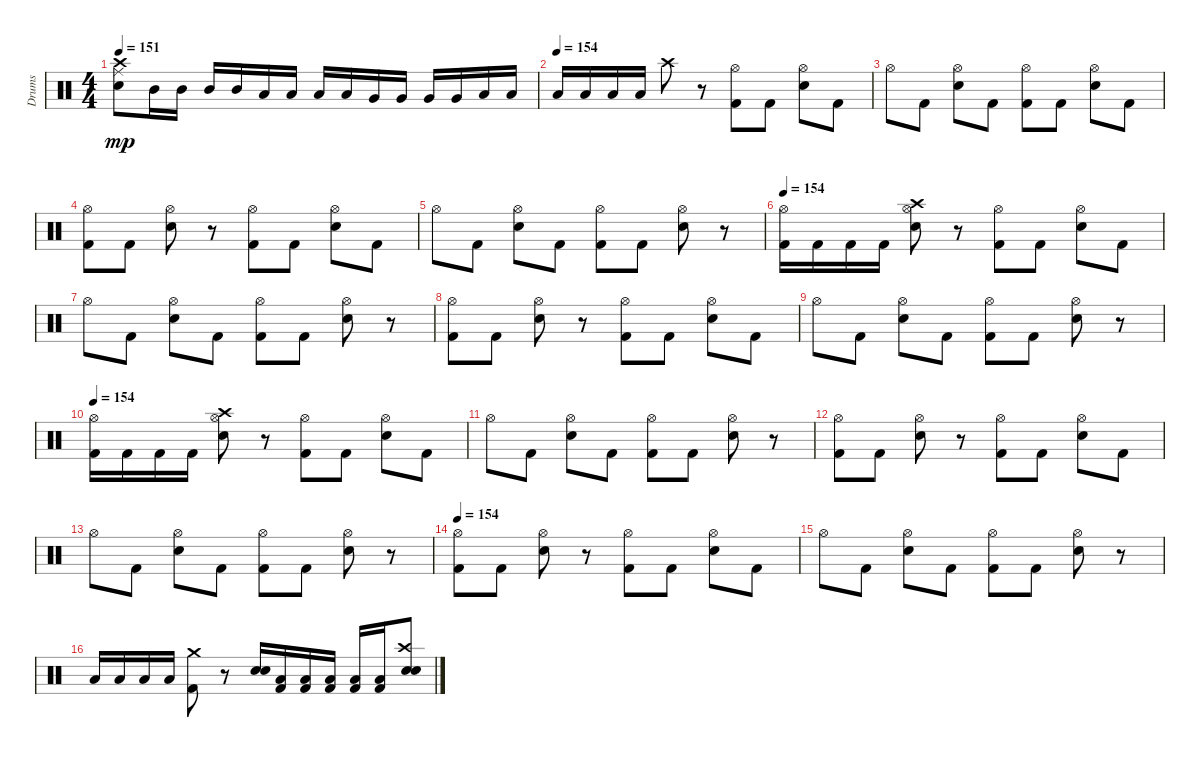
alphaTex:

\track ("Drums" "Drums") {instrument percussion}
\staff {score}
\articulation defaults
\ts (4 4)
\tempo 151
\clef neutral
\ks c
("Ride (middle)" "Snare (hit) 2" "Crash high (hit)").8{dy mp} "Mid Tom (hit)".16 "Mid Tom (hit)".16 "Mid Tom (hit)".16 "Mid Tom (hit)".16 "Low Tom (hit)".16 "Low Tom (hit)".16 "Low Tom (hit)".16 "Low Tom (hit)".16 "Very Low Tom (hit)".16 "Very Low Tom (hit)".16 "Very Low Tom (hit)".16 "Very Low Tom (hit)".16 "Low Floor Tom (hit)".16 "Low Floor Tom (hit)".16 |
\tempo (154)
"Low Floor Tom (hit)".16 "Low Floor Tom (hit)".16 "Low Floor Tom (hit)".16 "Low Floor Tom (hit)".16 "Crash high (hit)".8 r.8 ("Kick (hit) 2" "Hi-Hat (open)").8 "Kick (hit) 2".8 ("Hi-Hat (open)" "Snare (hit) 2").8 "Kick (hit) 2".8 |
"Hi-Hat (open)".8 "Kick (hit) 2".8 ("Hi-Hat (open)" "Snare (hit) 2").8 "Kick (hit) 2".8 ("Kick (hit) 2" "Hi-Hat (open)").8 "Kick (hit) 2".8 ("Hi-Hat (open)" "Snare (hit) 2").8 "Kick (hit) 2".8 |
("Kick (hit) 2" "Hi-Hat (open)").8 "Kick (hit) 2".8 ("Hi-Hat (open)" "Snare (hit) 2").8 r.8 ("Kick (hit) 2" "Hi-Hat (open)").8 "Kick (hit) 2".8 ("Hi-Hat (open)" "Snare (hit) 2").8 "Kick (hit) 2".8 |
"Hi-Hat (open)".8 "Kick (hit) 2".8 ("Hi-Hat (open)" "Snare (hit) 2").8 "Kick (hit) 2".8 ("Kick (hit) 2" "Hi-Hat (open)").8 "Kick (hit) 2".8 ("Snare (hit) 2" "Hi-Hat (open)").8 r.8 |
\tempo 154
("Hi-Hat (open)" "Kick (hit) 2").16 "Kick (hit) 2".16 "Kick (hit) 2".16 "Kick (hit) 2".16 ("Crash high (hit)" "Hi-Hat (open)" "Snare (hit) 2").8 r.8 ("Kick (hit) 2" "Hi-Hat (open)").8 "Kick (hit) 2".8 ("Hi-Hat (open)" "Snare (hit) 2").8 "Kick (hit) 2".8 |
"Hi-Hat (open)".8 "Kick (hit) 2".8 ("Snare (hit) 2" "Hi-Hat (open)").8 "Kick (hit) 2".8 ("Kick (hit) 2" "Hi-Hat (open)").8 "Kick (hit) 2".8 ("Hi-Hat (open)" "Snare (hit) 2").8 r.8 |
("Hi-Hat (open)" "Kick (hit) 2").8 "Kick (hit) 2".8 ("Snare (hit) 2" "Hi-Hat (open)").8 r.8 ("Hi-Hat (open)" "Kick (hit) 2").8 "Kick (hit) 2".8 ("Hi-Hat (open)" "Snare (hit) 2").8 "Kick (hit) 2".8 |
"Hi-Hat (open)".8 "Kick (hit) 2".8 ("Snare (hit) 2" "Hi-Hat (open)").8 "Kick (hit) 2".8 ("Kick (hit) 2" "Hi-Hat (open)").8 "Kick (hit) 2".8 ("Snare (hit) 2" "Hi-Hat (open)").8 r.8 |
\tempo 154
("Kick (hit) 2" "Hi-Hat (open)").16 "Kick (hit) 2".16 "Kick (hit) 2".16 "Kick (hit) 2".16 ("Snare (hit) 2" "Crash high (hit)" "Hi-Hat (open)").8 r.8 ("Kick (hit) 2" "Hi-Hat (open)").8 "Kick (hit) 2".8 ("Snare (hit) 2" "Hi-Hat (open)").8 "Kick (hit) 2".8 |
"Hi-Hat (open)".8 "Kick (hit) 2".8 ("Snare (hit) 2" "Hi-Hat (open)").8 "Kick (hit) 2".8 ("Kick (hit) 2" "Hi-Hat (open)").8 "Kick (hit) 2".8 ("Snare (hit) 2" "Hi-Hat (open)").8 r.8 |
("Kick (hit) 2" "Hi-Hat (open)").8 "Kick (hit) 2".8 ("Hi-Hat (open)" "Snare (hit) 2").8 r.8 ("Hi-Hat (open)" "Kick (hit) 2").8 "Kick (hit) 2".8 ("Snare (hit) 2" "Hi-Hat (open)").8 "Kick (hit) 2".8 |
"Hi-Hat (open)".8 "Kick (hit) 2".8 ("Hi-Hat (open)" "Snare (hit) 2").8 "Kick (hit) 2".8 ("Hi-Hat (open)" "Kick (hit) 2").8 "Kick (hit) 2".8 ("Hi-Hat (open)" "Snare (hit) 2").8 r.8 |
\tempo 154
("Kick (hit) 2" "Hi-Hat (open)").8 "Kick (hit) 2".8 ("Hi-Hat (open)" "Snare (hit) 2").8 r.8 ("Hi-Hat (open)" "Kick (hit) 2").8 "Kick (hit) 2".8 ("Snare (hit) 2" "Hi-Hat (open)").8 "Kick (hit) 2".8 |
"Hi-Hat (open)".8 "Kick (hit) 2".8 ("Hi-Hat (open)" "Snare (hit) 2").8 "Kick (hit) 2".8 ("Kick (hit) 2" "Hi-Hat (open)").8 "Kick (hit) 2".8 ("Hi-Hat (open)" "Snare (hit) 2").8 r.8 |
"Low Floor Tom (hit)".16 "Low Floor Tom (hit)".16 "Low Floor Tom (hit)".16 "Low Floor Tom (hit)".16 ("Crash medium (hit)" "Kick (hit) 2").8 r.8 ("Electric Snare (hit)" "Snare (hit) 2").16 ("Low Floor Tom (hit)" "Kick (hit) 2").16 ("Low Floor Tom (hit)" "Kick (hit) 2").16 ("Kick (hit) 2" "Low Floor Tom (hit)").16 ("Kick (hit) 2" "Low Floor Tom (hit)").16 ("Low Floor Tom (hit)" "Kick (hit) 2").16 ("Snare (hit) 2" "Crash high (hit)" "Electric Snare (hit)").8
